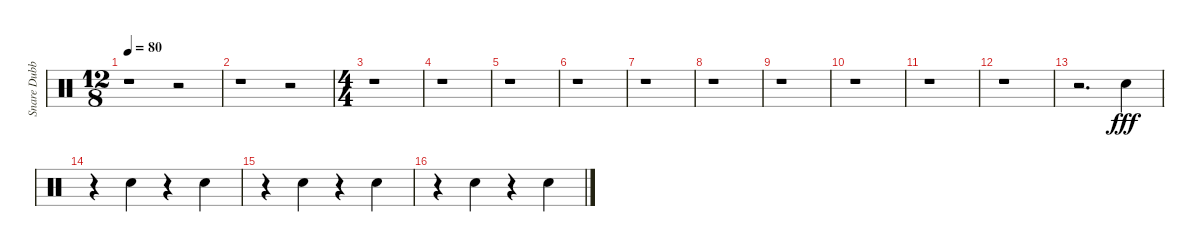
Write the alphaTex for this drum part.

\track ("Snare Dubbing (Ringo Starr)" "Snare Dubb") {instrument percussion}
\staff {score}
\articulation defaults
\ts (12 8)
\tempo 80
\clef neutral
\ks c
r.1{dy fff} r.2 |
r.1 r.2 |
\ts (4 4)
r.1 |
r.1 |
r.1 |
r.1 |
r.1 |
r.1 |
r.1 |
r.1 |
r.1 |
r.1 |
r.2{d} "Electric Snare (hit)".4 |
r.4 "Electric Snare (hit)".4 r.4 "Electric Snare (hit)".4 |
r.4 "Electric Snare (hit)".4 r.4 "Electric Snare (hit)".4 |
r.4 "Electric Snare (hit)".4 r.4 "Electric Snare (hit)".4
